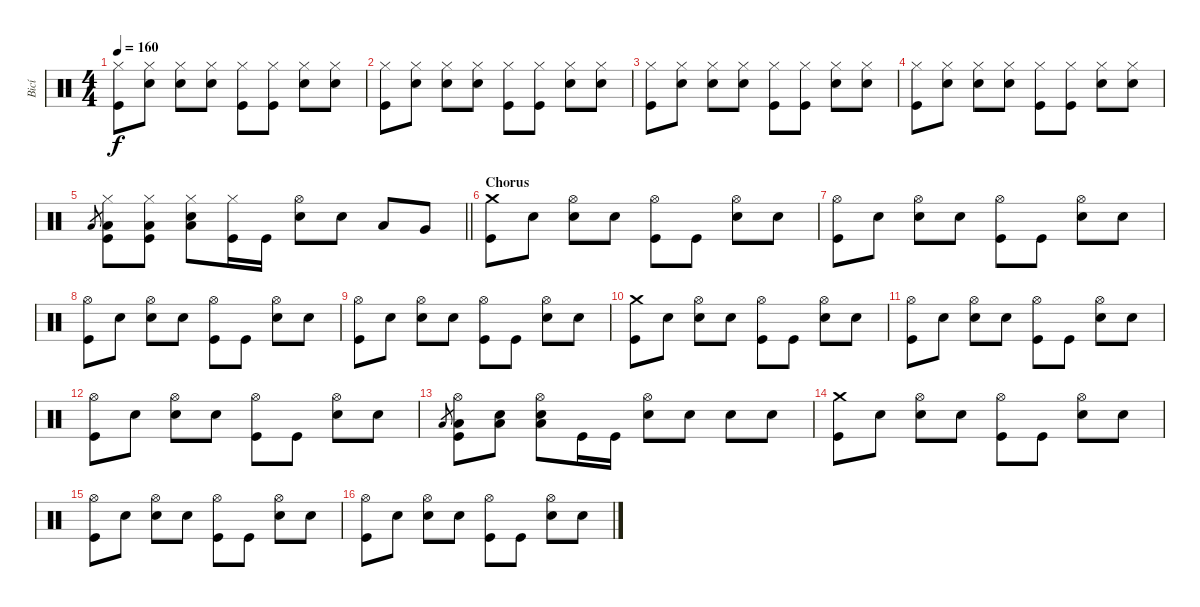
\track ("Bicí" "Bicí") {instrument percussion}
\staff {score}
\articulation defaults
\ts (4 4)
\tempo 160
\clef neutral
\ks c
("Hi-Hat (closed)" "Kick (hit)").8{dy f} ("Hi-Hat (closed)" "Snare (hit)").8 ("Hi-Hat (closed)" "Electric Snare (hit)").8 ("Hi-Hat (closed)" "Snare (hit)").8 ("Hi-Hat (closed)" "Kick (hit)").8 ("Hi-Hat (closed)" "Kick (hit)").8 ("Hi-Hat (closed)" "Electric Snare (hit)").8 ("Hi-Hat (closed)" "Snare (hit)").8 |
("Hi-Hat (closed)" "Kick (hit)").8 ("Hi-Hat (closed)" "Snare (hit)").8 ("Hi-Hat (closed)" "Electric Snare (hit)").8 ("Hi-Hat (closed)" "Snare (hit)").8 ("Hi-Hat (closed)" "Kick (hit)").8 ("Hi-Hat (closed)" "Kick (hit)").8 ("Hi-Hat (closed)" "Electric Snare (hit)").8 ("Hi-Hat (closed)" "Snare (hit)").8 |
("Hi-Hat (closed)" "Kick (hit)").8 ("Hi-Hat (closed)" "Snare (hit)").8 ("Hi-Hat (closed)" "Electric Snare (hit)").8 ("Hi-Hat (closed)" "Snare (hit)").8 ("Hi-Hat (closed)" "Kick (hit)").8 ("Hi-Hat (closed)" "Kick (hit)").8 ("Hi-Hat (closed)" "Electric Snare (hit)").8 ("Hi-Hat (closed)" "Snare (hit)").8 |
("Hi-Hat (closed)" "Kick (hit)").8 ("Hi-Hat (closed)" "Snare (hit)").8 ("Hi-Hat (closed)" "Electric Snare (hit)").8 ("Hi-Hat (closed)" "Snare (hit)").8 ("Hi-Hat (closed)" "Kick (hit)").8 ("Hi-Hat (closed)" "Kick (hit)").8 ("Hi-Hat (closed)" "Electric Snare (hit)").8 ("Hi-Hat (closed)" "Snare (hit)").8 |
\barLineRight lightlight "Low Tom (hit)".8{gr}
("Hi-Hat (closed)" "Low Tom (hit)" "Kick (hit)").8 ("Hi-Hat (closed)" "Low Tom (hit)" "Kick (hit)").8 ("Hi-Hat (closed)" "Low Tom (hit)" "Electric Snare (hit)").8 ("Hi-Hat (closed)" "Kick (hit)").16 "Kick (hit)".16 ("Hi-Hat (open)" "Electric Snare (hit)").8 "Electric Snare (hit)".8 "Low Tom (hit)".8 "Very Low Tom (hit)".8 |
\section ("" "Chorus")
("Crash medium (hit)" "Kick (hit)").8 "Snare (hit)".8 ("Hi-Hat (open)" "Electric Snare (hit)").8 "Snare (hit)".8 ("Hi-Hat (open)" "Kick (hit)").8 "Kick (hit)".8 ("Hi-Hat (open)" "Electric Snare (hit)").8 "Snare (hit)".8 |
("Hi-Hat (open)" "Kick (hit)").8 "Snare (hit)".8 ("Hi-Hat (open)" "Electric Snare (hit)").8 "Snare (hit)".8 ("Hi-Hat (open)" "Kick (hit)").8 "Kick (hit)".8 ("Hi-Hat (open)" "Electric Snare (hit)").8 "Snare (hit)".8 |
("Hi-Hat (open)" "Kick (hit)").8 "Snare (hit)".8 ("Hi-Hat (open)" "Electric Snare (hit)").8 "Snare (hit)".8 ("Hi-Hat (open)" "Kick (hit)").8 "Kick (hit)".8 ("Hi-Hat (open)" "Electric Snare (hit)").8 "Snare (hit)".8 |
("Hi-Hat (open)" "Kick (hit)").8 "Snare (hit)".8 ("Hi-Hat (open)" "Electric Snare (hit)").8 "Snare (hit)".8 ("Hi-Hat (open)" "Kick (hit)").8 "Kick (hit)".8 ("Hi-Hat (open)" "Electric Snare (hit)").8 "Snare (hit)".8 |
("Crash medium (hit)" "Kick (hit)").8 "Snare (hit)".8 ("Hi-Hat (open)" "Electric Snare (hit)").8 "Snare (hit)".8 ("Hi-Hat (open)" "Kick (hit)").8 "Kick (hit)".8 ("Hi-Hat (open)" "Electric Snare (hit)").8 "Snare (hit)".8 |
("Hi-Hat (open)" "Kick (hit)").8 "Snare (hit)".8 ("Hi-Hat (open)" "Electric Snare (hit)").8 "Snare (hit)".8 ("Hi-Hat (open)" "Kick (hit)").8 "Kick (hit)".8 ("Hi-Hat (open)" "Electric Snare (hit)").8 "Snare (hit)".8 |
("Hi-Hat (open)" "Kick (hit)").8 "Snare (hit)".8 ("Hi-Hat (open)" "Electric Snare (hit)").8 "Snare (hit)".8 ("Hi-Hat (open)" "Kick (hit)").8 "Kick (hit)".8 ("Hi-Hat (open)" "Electric Snare (hit)").8 "Snare (hit)".8 |
"Low Tom (hit)".8{gr} ("Hi-Hat (open)" "Low Tom (hit)" "Kick (hit)").8 ("Low Tom (hit)" "Snare (hit)").8 ("Hi-Hat (open)" "Low Tom (hit)" "Electric Snare (hit)").8 "Kick (hit)".16 "Kick (hit)".16 ("Hi-Hat (open)" "Electric Snare (hit)").8 "Electric Snare (hit)".8 "Electric Snare (hit)".8 "Electric Snare (hit)".8 |
("Crash medium (hit)" "Kick (hit)").8 "Snare (hit)".8 ("Hi-Hat (open)" "Electric Snare (hit)").8 "Snare (hit)".8 ("Hi-Hat (open)" "Kick (hit)").8 "Kick (hit)".8 ("Hi-Hat (open)" "Electric Snare (hit)").8 "Snare (hit)".8 |
("Hi-Hat (open)" "Kick (hit)").8 "Snare (hit)".8 ("Hi-Hat (open)" "Electric Snare (hit)").8 "Snare (hit)".8 ("Hi-Hat (open)" "Kick (hit)").8 "Kick (hit)".8 ("Hi-Hat (open)" "Electric Snare (hit)").8 "Snare (hit)".8 |
("Hi-Hat (open)" "Kick (hit)").8 "Snare (hit)".8 ("Hi-Hat (open)" "Electric Snare (hit)").8 "Snare (hit)".8 ("Hi-Hat (open)" "Kick (hit)").8 "Kick (hit)".8 ("Hi-Hat (open)" "Electric Snare (hit)").8 "Snare (hit)".8
